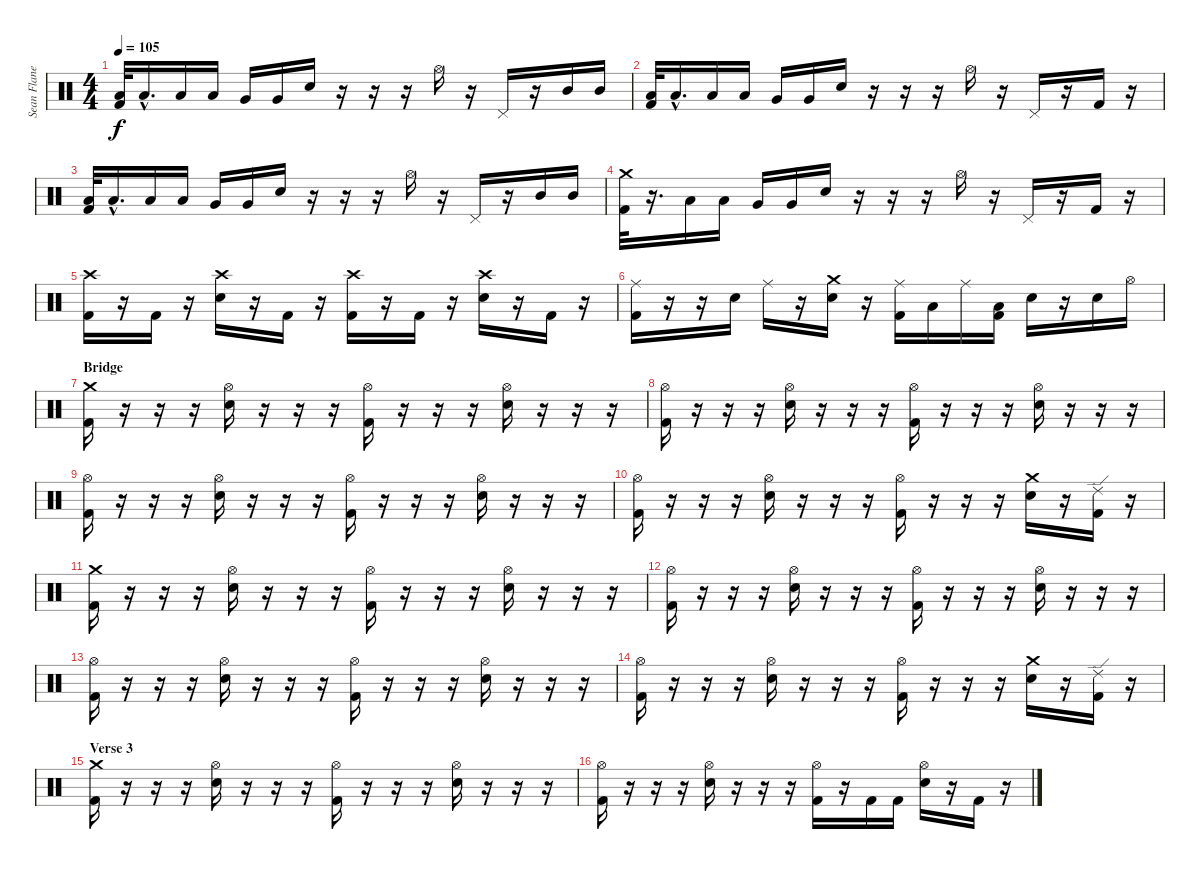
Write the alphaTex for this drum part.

\track ("Sean Flanegan [Drums]" "Sean Flane") {instrument percussion}
\staff {score}
\articulation defaults
\ts (4 4)
\tempo 105
\clef neutral
\ks c
("Low Tom (hit)" "Kick (hit) 2").32{dy f} "Low Tom (hit)"{hac}.16{d} "Low Tom (hit)".16 "Low Tom (hit)".16 "Very Low Tom (hit)".16 "Very Low Tom (hit)".16 "Electric Snare (hit)".16 r.16 r.16 r.16 "Hi-Hat (open)".16 r.16 "Pedal Hi-Hat (hit)".16 r.16 "Mid Tom (hit)".16 "Mid Tom (hit)".16 |
("Low Tom (hit)" "Kick (hit) 2").32 "Low Tom (hit)"{hac}.16{d} "Low Tom (hit)".16 "Low Tom (hit)".16 "Very Low Tom (hit)".16 "Very Low Tom (hit)".16 "Electric Snare (hit)".16 r.16 r.16 r.16 "Hi-Hat (open)".16 r.16 "Pedal Hi-Hat (hit)".16 r.16 "Kick (hit) 2".16 r.16 |
("Low Tom (hit)" "Kick (hit) 2").32 "Low Tom (hit)"{hac}.16{d} "Low Tom (hit)".16 "Low Tom (hit)".16 "Very Low Tom (hit)".16 "Very Low Tom (hit)".16 "Electric Snare (hit)".16 r.16 r.16 r.16 "Hi-Hat (open)".16 r.16 "Pedal Hi-Hat (hit)".16 r.16 "Mid Tom (hit)".16 "Mid Tom (hit)".16 |
("Crash medium (hit)" "Kick (hit) 2").32 r.16{d} "Low Tom (hit)".16 "Low Tom (hit)".16 "Very Low Tom (hit)".16 "Very Low Tom (hit)".16 "Electric Snare (hit)".16 r.16 r.16 r.16 "Hi-Hat (open)".16 r.16 "Pedal Hi-Hat (hit)".16 r.16 "Kick (hit) 2".16 r.16 |
("Crash high (hit)" "Kick (hit) 2").16 r.16 "Kick (hit) 2".16 r.16 ("Crash high (hit)" "Electric Snare (hit)").16 r.16 "Kick (hit) 2".16 r.16 ("Crash high (hit)" "Kick (hit) 2").16 r.16 "Kick (hit) 2".16 r.16 ("Crash high (hit)" "Electric Snare (hit)").16 r.16 "Kick (hit) 2".16 r.16 |
("Ride (middle)" "Kick (hit) 2").16 r.16 r.16 "Electric Snare (hit)".16 "Ride (middle)".16 r.16 ("Crash medium (hit)" "Electric Snare (hit)").16 r.16 ("Ride (middle)" "Kick (hit) 2").16 "Low Tom (hit)".16 "Ride (middle)".16 ("Low Tom (hit)" "Kick (hit) 2").16 "Electric Snare (hit)".16 r.16 "Electric Snare (hit)".16 "Hi-Hat (open)".16 |
\section ("" "Bridge ")
("Crash medium (hit)" "Kick (hit) 2").16 r.16 r.16 r.16 ("Hi-Hat (open)" "Electric Snare (hit)").16 r.16 r.16 r.16 ("Hi-Hat (open)" "Kick (hit) 2").16 r.16 r.16 r.16 ("Hi-Hat (open)" "Electric Snare (hit)").16 r.16 r.16 r.16 |
("Hi-Hat (open)" "Kick (hit) 2").16 r.16 r.16 r.16 ("Hi-Hat (open)" "Electric Snare (hit)").16 r.16 r.16 r.16 ("Hi-Hat (open)" "Kick (hit) 2").16 r.16 r.16 r.16 ("Hi-Hat (open)" "Electric Snare (hit)").16 r.16 r.16 r.16 |
("Hi-Hat (open)" "Kick (hit) 2").16 r.16 r.16 r.16 ("Hi-Hat (open)" "Electric Snare (hit)").16 r.16 r.16 r.16 ("Hi-Hat (open)" "Kick (hit) 2").16 r.16 r.16 r.16 ("Hi-Hat (open)" "Electric Snare (hit)").16 r.16 r.16 r.16 |
("Hi-Hat (open)" "Kick (hit) 2").16 r.16 r.16 r.16 ("Hi-Hat (open)" "Electric Snare (hit)").16 r.16 r.16 r.16 ("Hi-Hat (open)" "Kick (hit) 2").16 r.16 r.16 r.16 ("Crash medium (hit)" "Electric Snare (hit)").16 r.16 ("Ride (edge) 2" "Kick (hit) 2").16 r.16 |
("Crash medium (hit)" "Kick (hit) 2").16 r.16 r.16 r.16 ("Hi-Hat (open)" "Electric Snare (hit)").16 r.16 r.16 r.16 ("Hi-Hat (open)" "Kick (hit) 2").16 r.16 r.16 r.16 ("Hi-Hat (open)" "Electric Snare (hit)").16 r.16 r.16 r.16 |
("Hi-Hat (open)" "Kick (hit) 2").16 r.16 r.16 r.16 ("Hi-Hat (open)" "Electric Snare (hit)").16 r.16 r.16 r.16 ("Hi-Hat (open)" "Kick (hit) 2").16 r.16 r.16 r.16 ("Hi-Hat (open)" "Electric Snare (hit)").16 r.16 r.16 r.16 |
("Hi-Hat (open)" "Kick (hit) 2").16 r.16 r.16 r.16 ("Hi-Hat (open)" "Electric Snare (hit)").16 r.16 r.16 r.16 ("Hi-Hat (open)" "Kick (hit) 2").16 r.16 r.16 r.16 ("Hi-Hat (open)" "Electric Snare (hit)").16 r.16 r.16 r.16 |
("Hi-Hat (open)" "Kick (hit) 2").16 r.16 r.16 r.16 ("Hi-Hat (open)" "Electric Snare (hit)").16 r.16 r.16 r.16 ("Hi-Hat (open)" "Kick (hit) 2").16 r.16 r.16 r.16 ("Crash medium (hit)" "Electric Snare (hit)").16 r.16 ("Ride (edge) 2" "Kick (hit) 2").16 r.16 |
\section ("" "Verse 3 ")
("Crash medium (hit)" "Kick (hit) 2").16 r.16 r.16 r.16 ("Hi-Hat (open)" "Electric Snare (hit)").16 r.16 r.16 r.16 ("Hi-Hat (open)" "Kick (hit) 2").16 r.16 r.16 r.16 ("Hi-Hat (open)" "Electric Snare (hit)").16 r.16 r.16 r.16 |
("Hi-Hat (open)" "Kick (hit) 2").16 r.16 r.16 r.16 ("Hi-Hat (open)" "Electric Snare (hit)").16 r.16 r.16 r.16 ("Hi-Hat (open)" "Kick (hit) 2").16 r.16 "Kick (hit) 2".16 "Kick (hit) 2".16 ("Hi-Hat (open)" "Electric Snare (hit)").16 r.16 "Kick (hit) 2".16 r.16
